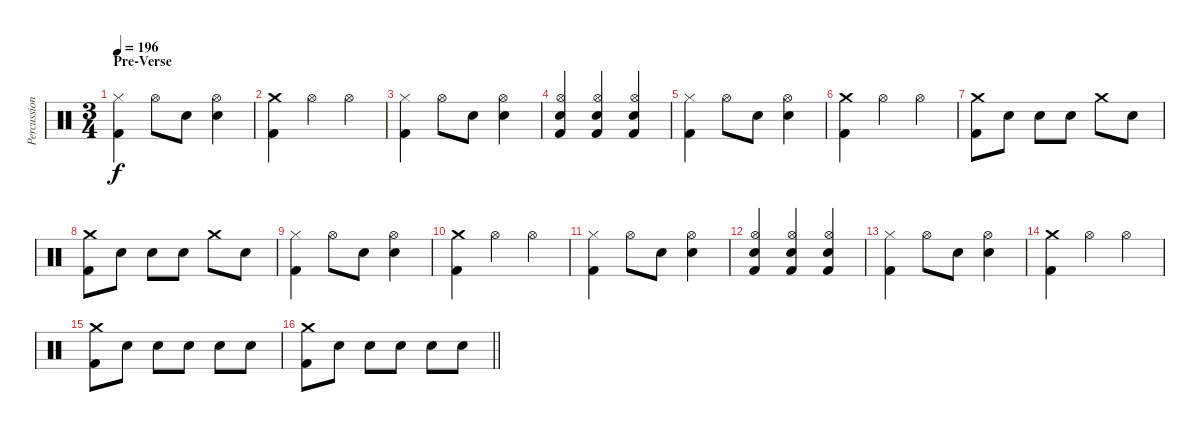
\track ("Percussion" "Percussion") {instrument percussion}
\staff {score}
\articulation defaults
\ts (3 4)
\section ("" "Pre-Verse")
\tempo 196
\clef neutral
\ks c
("Hi-Hat (closed)" "Kick (hit) 2").4{dy f} "Hi-Hat (open)".8 "Electric Snare (hit)".8 ("Hi-Hat (open)" "Electric Snare (hit)").4 |
("Crash medium (hit)" "Kick (hit) 2").4 "Hi-Hat (open)".4 "Hi-Hat (open)".4 |
("Hi-Hat (closed)" "Kick (hit) 2").4 "Hi-Hat (open)".8 "Electric Snare (hit)".8 ("Hi-Hat (open)" "Electric Snare (hit)").4 |
("Hi-Hat (open)" "Electric Snare (hit)" "Kick (hit) 2").4 ("Hi-Hat (open)" "Electric Snare (hit)" "Kick (hit) 2").4 ("Hi-Hat (open)" "Electric Snare (hit)" "Kick (hit) 2").4 |
("Hi-Hat (closed)" "Kick (hit) 2").4 "Hi-Hat (open)".8 "Electric Snare (hit)".8 ("Hi-Hat (open)" "Electric Snare (hit)").4 |
("Crash medium (hit)" "Kick (hit) 2").4 "Hi-Hat (open)".4 "Hi-Hat (open)".4 |
("Crash medium (hit)" "Kick (hit) 2").8 "Electric Snare (hit)".8 "Electric Snare (hit)".8 "Electric Snare (hit)".8 "Crash medium (hit)".8 "Electric Snare (hit)".8 |
("Crash medium (hit)" "Kick (hit) 2").8 "Electric Snare (hit)".8 "Electric Snare (hit)".8 "Electric Snare (hit)".8 "Crash medium (hit)".8 "Electric Snare (hit)".8 |
("Hi-Hat (closed)" "Kick (hit) 2").4 "Hi-Hat (open)".8 "Electric Snare (hit)".8 ("Hi-Hat (open)" "Electric Snare (hit)").4 |
("Crash medium (hit)" "Kick (hit) 2").4 "Hi-Hat (open)".4 "Hi-Hat (open)".4 |
("Hi-Hat (closed)" "Kick (hit) 2").4 "Hi-Hat (open)".8 "Electric Snare (hit)".8 ("Hi-Hat (open)" "Electric Snare (hit)").4 |
("Hi-Hat (open)" "Electric Snare (hit)" "Kick (hit) 2").4 ("Hi-Hat (open)" "Electric Snare (hit)" "Kick (hit) 2").4 ("Hi-Hat (open)" "Electric Snare (hit)" "Kick (hit) 2").4 |
("Hi-Hat (closed)" "Kick (hit) 2").4 "Hi-Hat (open)".8 "Electric Snare (hit)".8 ("Hi-Hat (open)" "Electric Snare (hit)").4 |
("Crash medium (hit)" "Kick (hit) 2").4 "Hi-Hat (open)".4 "Hi-Hat (open)".4 |
("Crash medium (hit)" "Kick (hit) 2").8 "Electric Snare (hit)".8 "Electric Snare (hit)".8 "Electric Snare (hit)".8 "Electric Snare (hit)".8 "Electric Snare (hit)".8 |
\barLineRight lightlight
("Crash medium (hit)" "Kick (hit) 2").8 "Electric Snare (hit)".8 "Electric Snare (hit)".8 "Electric Snare (hit)".8 "Electric Snare (hit)".8 "Electric Snare (hit)".8
